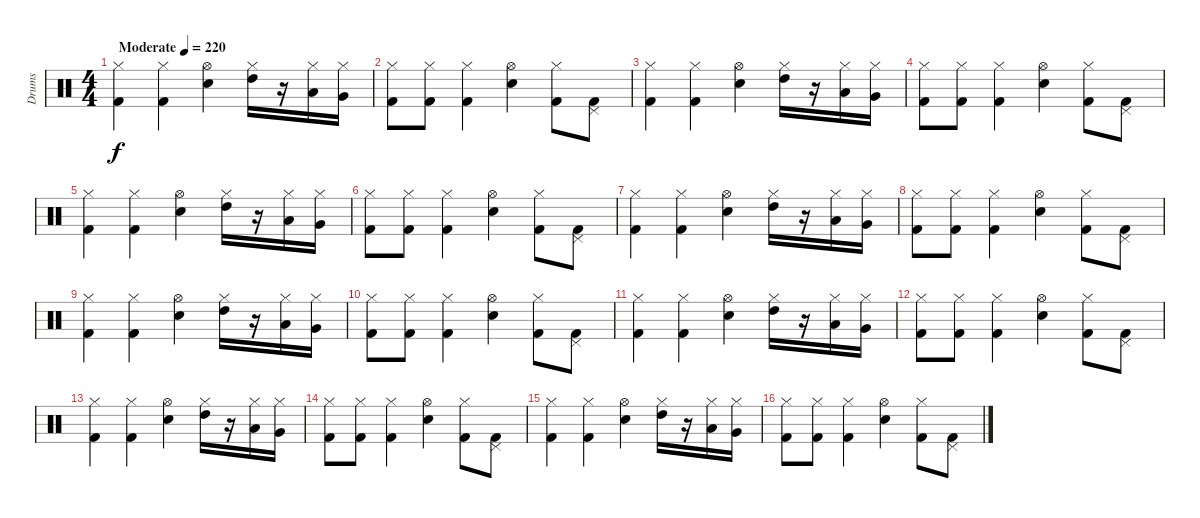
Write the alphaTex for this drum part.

\track ("Drums" "Drums") {instrument percussion}
\staff {score}
\articulation defaults
\ts (4 4)
\tempo (220 "Moderate")
\clef neutral
\ks c
("Hi-Hat (closed)" "Kick (hit) 2").4{dy f} ("Hi-Hat (closed)" "Kick (hit) 2").4 ("Hi-Hat (open)" "Electric Snare (hit)").4 ("Hi-Hat (closed)" "High Tom (hit)").16 r.16 ("Hi-Hat (closed)" "Low Tom (hit)").16 ("Hi-Hat (closed)" "Very Low Tom (hit)").16 |
("Hi-Hat (closed)" "Kick (hit) 2").8 ("Hi-Hat (closed)" "Kick (hit) 2").8 ("Hi-Hat (closed)" "Kick (hit) 2").4 ("Hi-Hat (open)" "Electric Snare (hit)").4 ("Hi-Hat (closed)" "Kick (hit) 2").8 ("Pedal Hi-Hat (hit)" "Kick (hit) 2").8 |
("Hi-Hat (closed)" "Kick (hit) 2").4 ("Hi-Hat (closed)" "Kick (hit) 2").4 ("Hi-Hat (open)" "Electric Snare (hit)").4 ("Hi-Hat (closed)" "High Tom (hit)").16 r.16 ("Hi-Hat (closed)" "Low Tom (hit)").16 ("Hi-Hat (closed)" "Very Low Tom (hit)").16 |
("Hi-Hat (closed)" "Kick (hit) 2").8 ("Hi-Hat (closed)" "Kick (hit) 2").8 ("Hi-Hat (closed)" "Kick (hit) 2").4 ("Hi-Hat (open)" "Electric Snare (hit)").4 ("Hi-Hat (closed)" "Kick (hit) 2").8 ("Pedal Hi-Hat (hit)" "Kick (hit) 2").8 |
("Hi-Hat (closed)" "Kick (hit) 2").4 ("Hi-Hat (closed)" "Kick (hit) 2").4 ("Hi-Hat (open)" "Electric Snare (hit)").4 ("Hi-Hat (closed)" "High Tom (hit)").16 r.16 ("Hi-Hat (closed)" "Low Tom (hit)").16 ("Hi-Hat (closed)" "Very Low Tom (hit)").16 |
("Hi-Hat (closed)" "Kick (hit) 2").8 ("Hi-Hat (closed)" "Kick (hit) 2").8 ("Hi-Hat (closed)" "Kick (hit) 2").4 ("Hi-Hat (open)" "Electric Snare (hit)").4 ("Hi-Hat (closed)" "Kick (hit) 2").8 ("Pedal Hi-Hat (hit)" "Kick (hit) 2").8 |
("Hi-Hat (closed)" "Kick (hit) 2").4 ("Hi-Hat (closed)" "Kick (hit) 2").4 ("Hi-Hat (open)" "Electric Snare (hit)").4 ("Hi-Hat (closed)" "High Tom (hit)").16 r.16 ("Hi-Hat (closed)" "Low Tom (hit)").16 ("Hi-Hat (closed)" "Very Low Tom (hit)").16 |
("Hi-Hat (closed)" "Kick (hit) 2").8 ("Hi-Hat (closed)" "Kick (hit) 2").8 ("Hi-Hat (closed)" "Kick (hit) 2").4 ("Hi-Hat (open)" "Electric Snare (hit)").4 ("Hi-Hat (closed)" "Kick (hit) 2").8 ("Pedal Hi-Hat (hit)" "Kick (hit) 2").8 |
("Hi-Hat (closed)" "Kick (hit) 2").4 ("Hi-Hat (closed)" "Kick (hit) 2").4 ("Hi-Hat (open)" "Electric Snare (hit)").4 ("Hi-Hat (closed)" "High Tom (hit)").16 r.16 ("Hi-Hat (closed)" "Low Tom (hit)").16 ("Hi-Hat (closed)" "Very Low Tom (hit)").16 |
("Hi-Hat (closed)" "Kick (hit) 2").8 ("Hi-Hat (closed)" "Kick (hit) 2").8 ("Hi-Hat (closed)" "Kick (hit) 2").4 ("Hi-Hat (open)" "Electric Snare (hit)").4 ("Hi-Hat (closed)" "Kick (hit) 2").8 ("Pedal Hi-Hat (hit)" "Kick (hit) 2").8 |
("Hi-Hat (closed)" "Kick (hit) 2").4 ("Hi-Hat (closed)" "Kick (hit) 2").4 ("Hi-Hat (open)" "Electric Snare (hit)").4 ("Hi-Hat (closed)" "High Tom (hit)").16 r.16 ("Hi-Hat (closed)" "Low Tom (hit)").16 ("Hi-Hat (closed)" "Very Low Tom (hit)").16 |
("Hi-Hat (closed)" "Kick (hit) 2").8 ("Hi-Hat (closed)" "Kick (hit) 2").8 ("Hi-Hat (closed)" "Kick (hit) 2").4 ("Hi-Hat (open)" "Electric Snare (hit)").4 ("Hi-Hat (closed)" "Kick (hit) 2").8 ("Pedal Hi-Hat (hit)" "Kick (hit) 2").8 |
("Hi-Hat (closed)" "Kick (hit) 2").4 ("Hi-Hat (closed)" "Kick (hit) 2").4 ("Hi-Hat (open)" "Electric Snare (hit)").4 ("Hi-Hat (closed)" "High Tom (hit)").16 r.16 ("Hi-Hat (closed)" "Low Tom (hit)").16 ("Hi-Hat (closed)" "Very Low Tom (hit)").16 |
("Hi-Hat (closed)" "Kick (hit) 2").8 ("Hi-Hat (closed)" "Kick (hit) 2").8 ("Hi-Hat (closed)" "Kick (hit) 2").4 ("Hi-Hat (open)" "Electric Snare (hit)").4 ("Hi-Hat (closed)" "Kick (hit) 2").8 ("Pedal Hi-Hat (hit)" "Kick (hit) 2").8 |
("Hi-Hat (closed)" "Kick (hit) 2").4 ("Hi-Hat (closed)" "Kick (hit) 2").4 ("Hi-Hat (open)" "Electric Snare (hit)").4 ("Hi-Hat (closed)" "High Tom (hit)").16 r.16 ("Hi-Hat (closed)" "Low Tom (hit)").16 ("Hi-Hat (closed)" "Very Low Tom (hit)").16 |
("Hi-Hat (closed)" "Kick (hit) 2").8 ("Hi-Hat (closed)" "Kick (hit) 2").8 ("Hi-Hat (closed)" "Kick (hit) 2").4 ("Hi-Hat (open)" "Electric Snare (hit)").4 ("Hi-Hat (closed)" "Kick (hit) 2").8 ("Pedal Hi-Hat (hit)" "Kick (hit) 2").8
